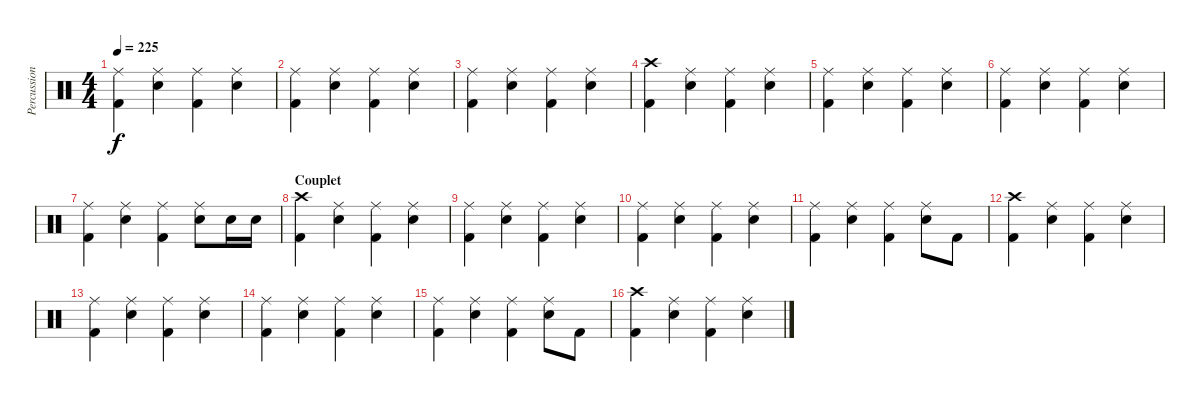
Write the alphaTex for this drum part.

\track ("Percussions" "Percussion") {instrument percussion}
\staff {score}
\articulation defaults
\ts (4 4)
\tempo 225
\clef neutral
\ks c
("Ride (middle)" "Kick (hit) 2").4{dy f} ("Ride (middle)" "Snare (hit) 2").4 ("Ride (middle)" "Kick (hit) 2").4 ("Ride (middle)" "Snare (hit) 2").4 |
("Ride (middle)" "Kick (hit) 2").4 ("Ride (middle)" "Snare (hit) 2").4 ("Ride (middle)" "Kick (hit) 2").4 ("Ride (middle)" "Snare (hit) 2").4 |
("Ride (middle)" "Kick (hit) 2").4 ("Ride (middle)" "Snare (hit) 2").4 ("Ride (middle)" "Kick (hit) 2").4 ("Ride (middle)" "Snare (hit) 2").4 |
("Crash high (hit)" "Kick (hit) 2").4 ("Ride (middle)" "Snare (hit) 2").4 ("Ride (middle)" "Kick (hit) 2").4 ("Ride (middle)" "Snare (hit) 2").4 |
("Ride (middle)" "Kick (hit) 2").4 ("Ride (middle)" "Snare (hit) 2").4 ("Ride (middle)" "Kick (hit) 2").4 ("Ride (middle)" "Snare (hit) 2").4 |
("Ride (middle)" "Kick (hit) 2").4 ("Ride (middle)" "Snare (hit) 2").4 ("Ride (middle)" "Kick (hit) 2").4 ("Ride (middle)" "Snare (hit) 2").4 |
("Ride (middle)" "Kick (hit) 2").4 ("Ride (middle)" "Snare (hit) 2").4 ("Ride (middle)" "Kick (hit) 2").4 ("Ride (middle)" "Snare (hit) 2").8 "Snare (hit) 2".16 "Snare (hit) 2".16 |
\section ("" "Couplet")
("Crash high (hit)" "Kick (hit) 2").4 ("Ride (middle)" "Snare (hit) 2").4 ("Ride (middle)" "Kick (hit) 2").4 ("Ride (middle)" "Snare (hit) 2").4 |
("Ride (middle)" "Kick (hit) 2").4 ("Ride (middle)" "Snare (hit) 2").4 ("Ride (middle)" "Kick (hit) 2").4 ("Ride (middle)" "Snare (hit) 2").4 |
("Ride (middle)" "Kick (hit) 2").4 ("Ride (middle)" "Snare (hit) 2").4 ("Ride (middle)" "Kick (hit) 2").4 ("Ride (middle)" "Snare (hit) 2").4 |
("Ride (middle)" "Kick (hit) 2").4 ("Ride (middle)" "Snare (hit) 2").4 ("Ride (middle)" "Kick (hit) 2").4 ("Ride (middle)" "Snare (hit) 2").8 "Kick (hit) 2".8 |
("Crash high (hit)" "Kick (hit) 2").4 ("Ride (middle)" "Snare (hit) 2").4 ("Ride (middle)" "Kick (hit) 2").4 ("Ride (middle)" "Snare (hit) 2").4 |
("Ride (middle)" "Kick (hit) 2").4 ("Ride (middle)" "Snare (hit) 2").4 ("Ride (middle)" "Kick (hit) 2").4 ("Ride (middle)" "Snare (hit) 2").4 |
("Ride (middle)" "Kick (hit) 2").4 ("Ride (middle)" "Snare (hit) 2").4 ("Ride (middle)" "Kick (hit) 2").4 ("Ride (middle)" "Snare (hit) 2").4 |
("Ride (middle)" "Kick (hit) 2").4 ("Ride (middle)" "Snare (hit) 2").4 ("Ride (middle)" "Kick (hit) 2").4 ("Ride (middle)" "Snare (hit) 2").8 "Kick (hit) 2".8 |
("Crash high (hit)" "Kick (hit) 2").4 ("Ride (middle)" "Snare (hit) 2").4 ("Ride (middle)" "Kick (hit) 2").4 ("Ride (middle)" "Snare (hit) 2").4
